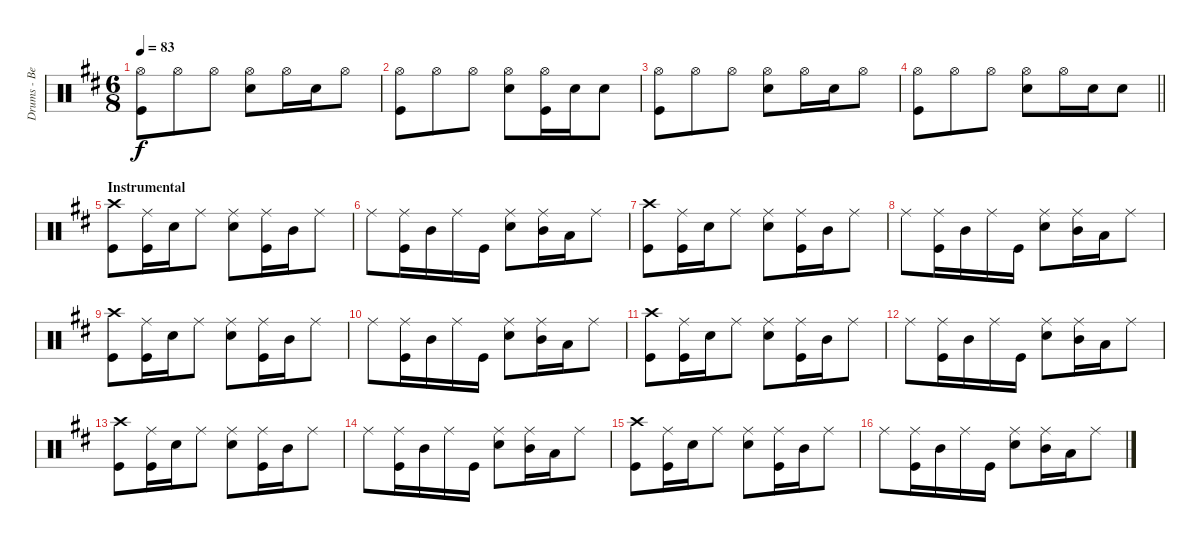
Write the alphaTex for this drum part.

\track ("Drums - Ben Johnston" "Drums - Be") {instrument percussion}
\staff {score}
\articulation defaults
\ts (6 8)
\tempo 83
\clef neutral
\ks d
("Hi-Hat (open)" "Kick (hit)").8{dy f} "Hi-Hat (open)".8 "Hi-Hat (open)".8 ("Hi-Hat (open)" "Snare (hit) 2").8 "Hi-Hat (open)".16 "Snare (hit) 2".16 "Hi-Hat (open)".8 |
("Hi-Hat (open)" "Kick (hit)").8 "Hi-Hat (open)".8 "Hi-Hat (open)".8 ("Hi-Hat (open)" "Snare (hit) 2").8 ("Hi-Hat (open)" "Kick (hit)").16 "Snare (hit) 2".16 "Snare (hit) 2".8 |
("Hi-Hat (open)" "Kick (hit)").8 "Hi-Hat (open)".8 "Hi-Hat (open)".8 ("Hi-Hat (open)" "Snare (hit) 2").8 "Hi-Hat (open)".16 "Snare (hit) 2".16 "Hi-Hat (open)".8 |
\barLineRight lightlight
("Hi-Hat (open)" "Kick (hit)").8 "Hi-Hat (open)".8 "Hi-Hat (open)".8 ("Hi-Hat (open)" "Snare (hit) 2").8 "Hi-Hat (open)".16 "Snare (hit) 2".16 "Snare (hit) 2".8 |
\section ("" "Instrumental")
("Crash high (hit)" "Kick (hit)").8 ("Ride (middle)" "Kick (hit)").16 "Snare (hit) 2".16 "Ride (middle)".8 ("Ride (middle)" "Snare (hit) 2").8 ("Ride (middle)" "Kick (hit)").16 "Mid Tom (hit)".16 "Ride (middle)".8 |
"Ride (middle)".8 ("Ride (middle)" "Kick (hit)").16 "Mid Tom (hit)".16 "Ride (middle)".16 "Kick (hit)".16 ("Ride (middle)" "Snare (hit) 2").8 ("Ride (middle)" "Mid Tom (hit)").16 "Low Tom (hit)".16 "Ride (middle)".8 |
("Crash high (hit)" "Kick (hit)").8 ("Ride (middle)" "Kick (hit)").16 "Snare (hit) 2".16 "Ride (middle)".8 ("Ride (middle)" "Snare (hit) 2").8 ("Ride (middle)" "Kick (hit)").16 "Mid Tom (hit)".16 "Ride (middle)".8 |
"Ride (middle)".8 ("Ride (middle)" "Kick (hit)").16 "Mid Tom (hit)".16 "Ride (middle)".16 "Kick (hit)".16 ("Ride (middle)" "Snare (hit) 2").8 ("Ride (middle)" "Mid Tom (hit)").16 "Low Tom (hit)".16 "Ride (middle)".8 |
("Crash high (hit)" "Kick (hit)").8 ("Ride (middle)" "Kick (hit)").16 "Snare (hit) 2".16 "Ride (middle)".8 ("Ride (middle)" "Snare (hit) 2").8 ("Ride (middle)" "Kick (hit)").16 "Mid Tom (hit)".16 "Ride (middle)".8 |
"Ride (middle)".8 ("Ride (middle)" "Kick (hit)").16 "Mid Tom (hit)".16 "Ride (middle)".16 "Kick (hit)".16 ("Ride (middle)" "Snare (hit) 2").8 ("Ride (middle)" "Mid Tom (hit)").16 "Low Tom (hit)".16 "Ride (middle)".8 |
("Crash high (hit)" "Kick (hit)").8 ("Ride (middle)" "Kick (hit)").16 "Snare (hit) 2".16 "Ride (middle)".8 ("Ride (middle)" "Snare (hit) 2").8 ("Ride (middle)" "Kick (hit)").16 "Mid Tom (hit)".16 "Ride (middle)".8 |
"Ride (middle)".8 ("Ride (middle)" "Kick (hit)").16 "Mid Tom (hit)".16 "Ride (middle)".16 "Kick (hit)".16 ("Ride (middle)" "Snare (hit) 2").8 ("Ride (middle)" "Mid Tom (hit)").16 "Low Tom (hit)".16 "Ride (middle)".8 |
("Crash high (hit)" "Kick (hit)").8 ("Ride (middle)" "Kick (hit)").16 "Snare (hit) 2".16 "Ride (middle)".8 ("Ride (middle)" "Snare (hit) 2").8 ("Ride (middle)" "Kick (hit)").16 "Mid Tom (hit)".16 "Ride (middle)".8 |
"Ride (middle)".8 ("Ride (middle)" "Kick (hit)").16 "Mid Tom (hit)".16 "Ride (middle)".16 "Kick (hit)".16 ("Ride (middle)" "Snare (hit) 2").8 ("Ride (middle)" "Mid Tom (hit)").16 "Low Tom (hit)".16 "Ride (middle)".8 |
("Crash high (hit)" "Kick (hit)").8 ("Ride (middle)" "Kick (hit)").16 "Snare (hit) 2".16 "Ride (middle)".8 ("Ride (middle)" "Snare (hit) 2").8 ("Ride (middle)" "Kick (hit)").16 "Mid Tom (hit)".16 "Ride (middle)".8 |
"Ride (middle)".8 ("Ride (middle)" "Kick (hit)").16 "Mid Tom (hit)".16 "Ride (middle)".16 "Kick (hit)".16 ("Ride (middle)" "Snare (hit) 2").8 ("Ride (middle)" "Mid Tom (hit)").16 "Low Tom (hit)".16 "Ride (middle)".8
